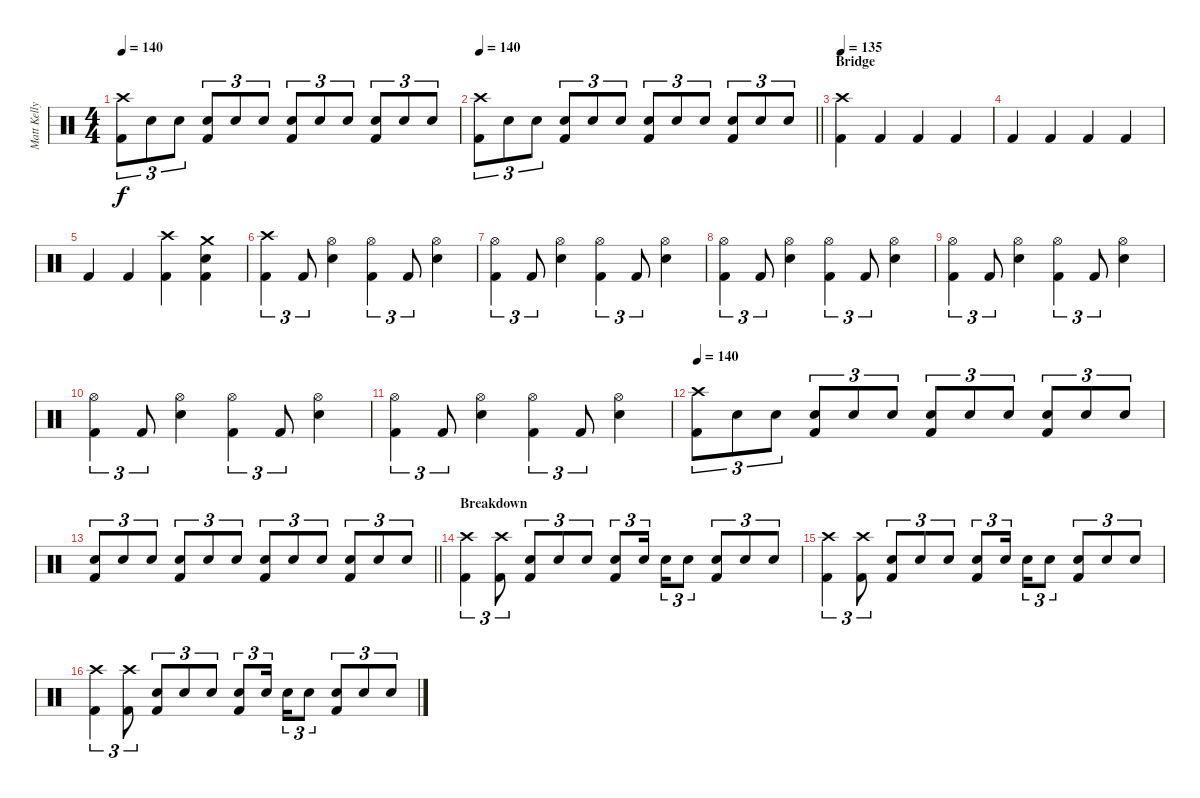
\track ("Matt Kelly (Drums)" "Matt Kelly") {instrument percussion}
\staff {score}
\articulation defaults
\ts (4 4)
\tempo 140
\clef neutral
\ks c
("Crash high (hit)" "Kick (hit) 2").8{tu (3 2) dy f} "Electric Snare (hit)".8{tu (3 2)} "Electric Snare (hit)".8{tu (3 2)} ("Electric Snare (hit)" "Kick (hit) 2").8{tu (3 2)} "Electric Snare (hit)".8{tu (3 2)} "Electric Snare (hit)".8{tu (3 2)} ("Electric Snare (hit)" "Kick (hit) 2").8{tu (3 2)} "Electric Snare (hit)".8{tu (3 2)} "Electric Snare (hit)".8{tu (3 2)} ("Electric Snare (hit)" "Kick (hit) 2").8{tu (3 2)} "Electric Snare (hit)".8{tu (3 2)} "Electric Snare (hit)".8{tu (3 2)} |
\tempo 140
\barLineRight lightlight
("Crash high (hit)" "Kick (hit) 2").8{tu (3 2)} "Electric Snare (hit)".8{tu (3 2)} "Electric Snare (hit)".8{tu (3 2)} ("Electric Snare (hit)" "Kick (hit) 2").8{tu (3 2)} "Electric Snare (hit)".8{tu (3 2)} "Electric Snare (hit)".8{tu (3 2)} ("Electric Snare (hit)" "Kick (hit) 2").8{tu (3 2)} "Electric Snare (hit)".8{tu (3 2)} "Electric Snare (hit)".8{tu (3 2)} ("Electric Snare (hit)" "Kick (hit) 2").8{tu (3 2)} "Electric Snare (hit)".8{tu (3 2)} "Electric Snare (hit)".8{tu (3 2)} |
\section ("" "Bridge")
\tempo 135
("Crash high (hit)" "Kick (hit) 2").4 "Kick (hit) 2".4 "Kick (hit) 2".4 "Kick (hit) 2".4 |
"Kick (hit) 2".4 "Kick (hit) 2".4 "Kick (hit) 2".4 "Kick (hit) 2".4 |
"Kick (hit) 2".4 "Kick (hit) 2".4 ("Crash high (hit)" "Kick (hit) 2").4 ("Crash medium (hit)" "Electric Snare (hit)" "Kick (hit) 2").4 |
("Crash high (hit)" "Kick (hit) 2").4{tu (3 2)} "Kick (hit) 2".8{tu (3 2)} ("Hi-Hat (open)" "Electric Snare (hit)").4 ("Hi-Hat (open)" "Kick (hit) 2").4{tu (3 2)} "Kick (hit) 2".8{tu (3 2)} ("Hi-Hat (open)" "Electric Snare (hit)").4 |
("Hi-Hat (open)" "Kick (hit) 2").4{tu (3 2)} "Kick (hit) 2".8{tu (3 2)} ("Hi-Hat (open)" "Electric Snare (hit)").4 ("Hi-Hat (open)" "Kick (hit) 2").4{tu (3 2)} "Kick (hit) 2".8{tu (3 2)} ("Hi-Hat (open)" "Electric Snare (hit)").4 |
("Hi-Hat (open)" "Kick (hit) 2").4{tu (3 2)} "Kick (hit) 2".8{tu (3 2)} ("Hi-Hat (open)" "Electric Snare (hit)").4 ("Hi-Hat (open)" "Kick (hit) 2").4{tu (3 2)} "Kick (hit) 2".8{tu (3 2)} ("Hi-Hat (open)" "Electric Snare (hit)").4 |
("Hi-Hat (open)" "Kick (hit) 2").4{tu (3 2)} "Kick (hit) 2".8{tu (3 2)} ("Hi-Hat (open)" "Electric Snare (hit)").4 ("Hi-Hat (open)" "Kick (hit) 2").4{tu (3 2)} "Kick (hit) 2".8{tu (3 2)} ("Hi-Hat (open)" "Electric Snare (hit)").4 |
("Hi-Hat (open)" "Kick (hit) 2").4{tu (3 2)} "Kick (hit) 2".8{tu (3 2)} ("Hi-Hat (open)" "Electric Snare (hit)").4 ("Hi-Hat (open)" "Kick (hit) 2").4{tu (3 2)} "Kick (hit) 2".8{tu (3 2)} ("Hi-Hat (open)" "Electric Snare (hit)").4 |
("Hi-Hat (open)" "Kick (hit) 2").4{tu (3 2)} "Kick (hit) 2".8{tu (3 2)} ("Hi-Hat (open)" "Electric Snare (hit)").4 ("Hi-Hat (open)" "Kick (hit) 2").4{tu (3 2)} "Kick (hit) 2".8{tu (3 2)} ("Hi-Hat (open)" "Electric Snare (hit)").4 |
\tempo 140
("Crash high (hit)" "Kick (hit) 2").8{tu (3 2)} "Electric Snare (hit)".8{tu (3 2)} "Electric Snare (hit)".8{tu (3 2)} ("Electric Snare (hit)" "Kick (hit) 2").8{tu (3 2)} "Electric Snare (hit)".8{tu (3 2)} "Electric Snare (hit)".8{tu (3 2)} ("Electric Snare (hit)" "Kick (hit) 2").8{tu (3 2)} "Electric Snare (hit)".8{tu (3 2)} "Electric Snare (hit)".8{tu (3 2)} ("Electric Snare (hit)" "Kick (hit) 2").8{tu (3 2)} "Electric Snare (hit)".8{tu (3 2)} "Electric Snare (hit)".8{tu (3 2)} |
\barLineRight lightlight
("Electric Snare (hit)" "Kick (hit) 2").8{tu (3 2)} "Electric Snare (hit)".8{tu (3 2)} "Electric Snare (hit)".8{tu (3 2)} ("Electric Snare (hit)" "Kick (hit) 2").8{tu (3 2)} "Electric Snare (hit)".8{tu (3 2)} "Electric Snare (hit)".8{tu (3 2)} ("Electric Snare (hit)" "Kick (hit) 2").8{tu (3 2)} "Electric Snare (hit)".8{tu (3 2)} "Electric Snare (hit)".8{tu (3 2)} ("Electric Snare (hit)" "Kick (hit) 2").8{tu (3 2)} "Electric Snare (hit)".8{tu (3 2)} "Electric Snare (hit)".8{tu (3 2)} |
\section ("" "Breakdown")
("Crash high (hit)" "Kick (hit) 2").4{tu (3 2)} ("Crash high (hit)" "Kick (hit) 2").8{tu (3 2)} ("Electric Snare (hit)" "Kick (hit) 2").8{tu (3 2)} "Electric Snare (hit)".8{tu (3 2)} "Electric Snare (hit)".8{tu (3 2)} ("Electric Snare (hit)" "Kick (hit) 2").8{tu (3 2)} "Electric Snare (hit)".16{tu (3 2) beam splitsecondary} "Electric Snare (hit)".16{tu (3 2)} "Electric Snare (hit)".8{tu (3 2)} ("Electric Snare (hit)" "Kick (hit) 2").8{tu (3 2)} "Electric Snare (hit)".8{tu (3 2)} "Electric Snare (hit)".8{tu (3 2)} |
("Crash high (hit)" "Kick (hit) 2").4{tu (3 2)} ("Crash high (hit)" "Kick (hit) 2").8{tu (3 2)} ("Electric Snare (hit)" "Kick (hit) 2").8{tu (3 2)} "Electric Snare (hit)".8{tu (3 2)} "Electric Snare (hit)".8{tu (3 2)} ("Electric Snare (hit)" "Kick (hit) 2").8{tu (3 2)} "Electric Snare (hit)".16{tu (3 2) beam splitsecondary} "Electric Snare (hit)".16{tu (3 2)} "Electric Snare (hit)".8{tu (3 2)} ("Electric Snare (hit)" "Kick (hit) 2").8{tu (3 2)} "Electric Snare (hit)".8{tu (3 2)} "Electric Snare (hit)".8{tu (3 2)} |
("Crash high (hit)" "Kick (hit) 2").4{tu (3 2)} ("Crash high (hit)" "Kick (hit) 2").8{tu (3 2)} ("Electric Snare (hit)" "Kick (hit) 2").8{tu (3 2)} "Electric Snare (hit)".8{tu (3 2)} "Electric Snare (hit)".8{tu (3 2)} ("Electric Snare (hit)" "Kick (hit) 2").8{tu (3 2)} "Electric Snare (hit)".16{tu (3 2) beam splitsecondary} "Electric Snare (hit)".16{tu (3 2)} "Electric Snare (hit)".8{tu (3 2)} ("Electric Snare (hit)" "Kick (hit) 2").8{tu (3 2)} "Electric Snare (hit)".8{tu (3 2)} "Electric Snare (hit)".8{tu (3 2)}
